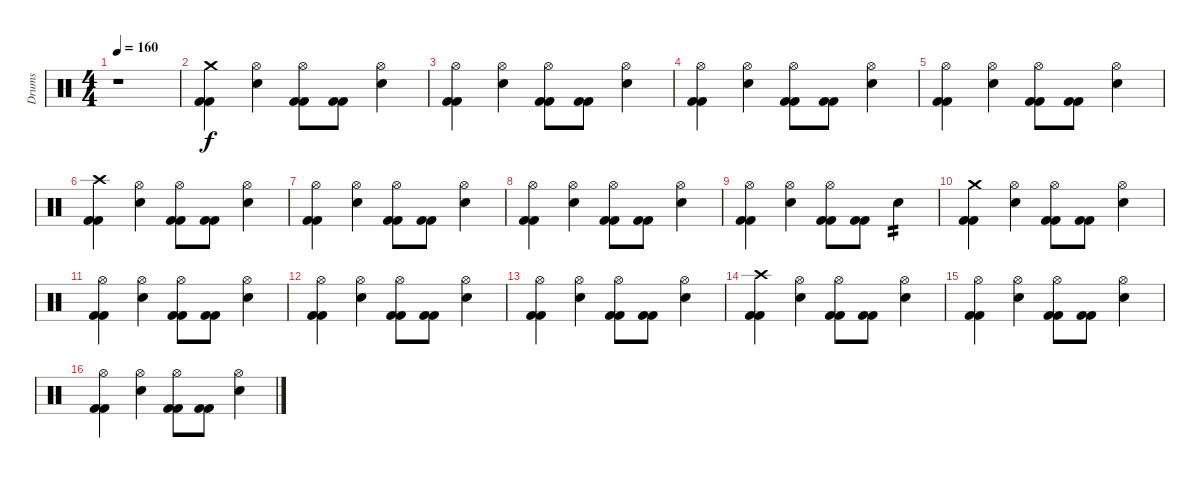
\track ("Drums" "Drums") {instrument percussion}
\staff {score}
\articulation defaults
\ts (4 4)
\tempo 160
\clef neutral
\ks c
r.1{dy f} |
("Kick (hit) 2" "Kick (hit) 2" "Crash medium (hit)").4 ("Hi-Hat (open)" "Electric Snare (hit)").4 ("Hi-Hat (open)" "Kick (hit) 2" "Kick (hit) 2").8 ("Kick (hit) 2" "Kick (hit) 2").8 ("Electric Snare (hit)" "Hi-Hat (open)").4 |
("Kick (hit) 2" "Kick (hit) 2" "Hi-Hat (open)").4 ("Hi-Hat (open)" "Electric Snare (hit)").4 ("Hi-Hat (open)" "Kick (hit) 2" "Kick (hit) 2").8 ("Kick (hit) 2" "Kick (hit) 2").8 ("Electric Snare (hit)" "Hi-Hat (open)").4 |
("Kick (hit) 2" "Kick (hit) 2" "Hi-Hat (open)").4 ("Hi-Hat (open)" "Electric Snare (hit)").4 ("Hi-Hat (open)" "Kick (hit) 2" "Kick (hit) 2").8 ("Kick (hit) 2" "Kick (hit) 2").8 ("Electric Snare (hit)" "Hi-Hat (open)").4 |
("Kick (hit) 2" "Kick (hit) 2" "Hi-Hat (open)").4 ("Hi-Hat (open)" "Electric Snare (hit)").4 ("Hi-Hat (open)" "Kick (hit) 2" "Kick (hit) 2").8 ("Kick (hit) 2" "Kick (hit) 2").8 ("Electric Snare (hit)" "Hi-Hat (open)").4 |
("Kick (hit) 2" "Kick (hit) 2" "Crash high (hit)").4 ("Hi-Hat (open)" "Electric Snare (hit)").4 ("Hi-Hat (open)" "Kick (hit) 2" "Kick (hit) 2").8 ("Kick (hit) 2" "Kick (hit) 2").8 ("Electric Snare (hit)" "Hi-Hat (open)").4 |
("Kick (hit) 2" "Kick (hit) 2" "Hi-Hat (open)").4 ("Hi-Hat (open)" "Electric Snare (hit)").4 ("Hi-Hat (open)" "Kick (hit) 2" "Kick (hit) 2").8 ("Kick (hit) 2" "Kick (hit) 2").8 ("Electric Snare (hit)" "Hi-Hat (open)").4 |
("Kick (hit) 2" "Kick (hit) 2" "Hi-Hat (open)").4 ("Hi-Hat (open)" "Electric Snare (hit)").4 ("Hi-Hat (open)" "Kick (hit) 2" "Kick (hit) 2").8 ("Kick (hit) 2" "Kick (hit) 2").8 ("Electric Snare (hit)" "Hi-Hat (open)").4 |
("Kick (hit) 2" "Kick (hit) 2" "Hi-Hat (open)").4 ("Hi-Hat (open)" "Electric Snare (hit)").4 ("Hi-Hat (open)" "Kick (hit) 2" "Kick (hit) 2").8 ("Kick (hit) 2" "Kick (hit) 2").8 "Electric Snare (hit)".4{tp 2} |
("Kick (hit) 2" "Kick (hit) 2" "Crash medium (hit)").4 ("Hi-Hat (open)" "Electric Snare (hit)").4 ("Hi-Hat (open)" "Kick (hit) 2" "Kick (hit) 2").8 ("Kick (hit) 2" "Kick (hit) 2").8 ("Electric Snare (hit)" "Hi-Hat (open)").4 |
("Kick (hit) 2" "Kick (hit) 2" "Hi-Hat (open)").4 ("Hi-Hat (open)" "Electric Snare (hit)").4 ("Hi-Hat (open)" "Kick (hit) 2" "Kick (hit) 2").8 ("Kick (hit) 2" "Kick (hit) 2").8 ("Electric Snare (hit)" "Hi-Hat (open)").4 |
("Kick (hit) 2" "Kick (hit) 2" "Hi-Hat (open)").4 ("Hi-Hat (open)" "Electric Snare (hit)").4 ("Hi-Hat (open)" "Kick (hit) 2" "Kick (hit) 2").8 ("Kick (hit) 2" "Kick (hit) 2").8 ("Electric Snare (hit)" "Hi-Hat (open)").4 |
("Kick (hit) 2" "Kick (hit) 2" "Hi-Hat (open)").4 ("Hi-Hat (open)" "Electric Snare (hit)").4 ("Hi-Hat (open)" "Kick (hit) 2" "Kick (hit) 2").8 ("Kick (hit) 2" "Kick (hit) 2").8 ("Electric Snare (hit)" "Hi-Hat (open)").4 |
("Kick (hit) 2" "Kick (hit) 2" "Crash high (hit)").4 ("Hi-Hat (open)" "Electric Snare (hit)").4 ("Hi-Hat (open)" "Kick (hit) 2" "Kick (hit) 2").8 ("Kick (hit) 2" "Kick (hit) 2").8 ("Electric Snare (hit)" "Hi-Hat (open)").4 |
("Kick (hit) 2" "Kick (hit) 2" "Hi-Hat (open)").4 ("Hi-Hat (open)" "Electric Snare (hit)").4 ("Hi-Hat (open)" "Kick (hit) 2" "Kick (hit) 2").8 ("Kick (hit) 2" "Kick (hit) 2").8 ("Electric Snare (hit)" "Hi-Hat (open)").4 |
("Kick (hit) 2" "Kick (hit) 2" "Hi-Hat (open)").4 ("Hi-Hat (open)" "Electric Snare (hit)").4 ("Hi-Hat (open)" "Kick (hit) 2" "Kick (hit) 2").8 ("Kick (hit) 2" "Kick (hit) 2").8 ("Electric Snare (hit)" "Hi-Hat (open)").4
